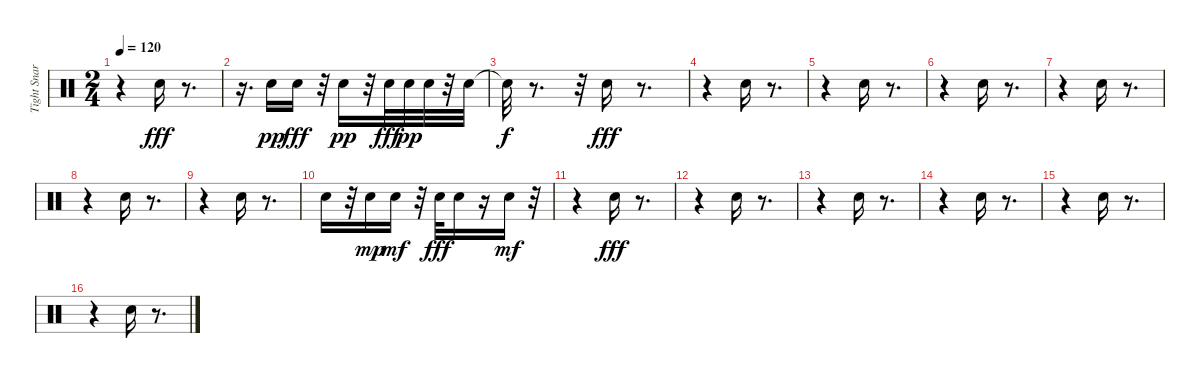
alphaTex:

\track ("Tight Snare (1) (1) (1) (1)" "Tight Snar") {instrument percussion}
\staff {score}
\articulation defaults
\ts (2 4)
\tempo 120
\clef neutral
\ks c
r.4{dy fff} "Electric Snare (hit)".16 r.8{d} |
r.16{d} "Electric Snare (hit)".16{dy pp} "Electric Snare (hit)".16{dy fff} r.32 "Electric Snare (hit)".16{dy pp} r.32 "Electric Snare (hit)".32{dy fff} "Electric Snare (hit)".32{dy pp} "Electric Snare (hit)".32 r.32 "Electric Snare (hit)".32 |
"Snare (hit)"{t}.32{dy f} r.8{d} r.32 "Electric Snare (hit)".16{dy fff} r.8{d} |
r.4 "Electric Snare (hit)".16 r.8{d} |
r.4 "Electric Snare (hit)".16 r.8{d} |
r.4 "Electric Snare (hit)".16 r.8{d} |
r.4 "Electric Snare (hit)".16 r.8{d} |
r.4 "Electric Snare (hit)".16 r.8{d} |
r.4 "Electric Snare (hit)".16 r.8{d} |
"Electric Snare (hit)".16 r.32 "Electric Snare (hit)".16{dy mp} "Electric Snare (hit)".16{dy mf} r.32 "Electric Snare (hit)".32{dy fff} "Electric Snare (hit)".16 r.16 "Electric Snare (hit)".16{dy mf} r.32 |
r.4 "Electric Snare (hit)".16{dy fff} r.8{d} |
r.4 "Electric Snare (hit)".16 r.8{d} |
r.4 "Electric Snare (hit)".16 r.8{d} |
r.4 "Electric Snare (hit)".16 r.8{d} |
r.4 "Electric Snare (hit)".16 r.8{d} |
r.4 "Electric Snare (hit)".16 r.8{d}
